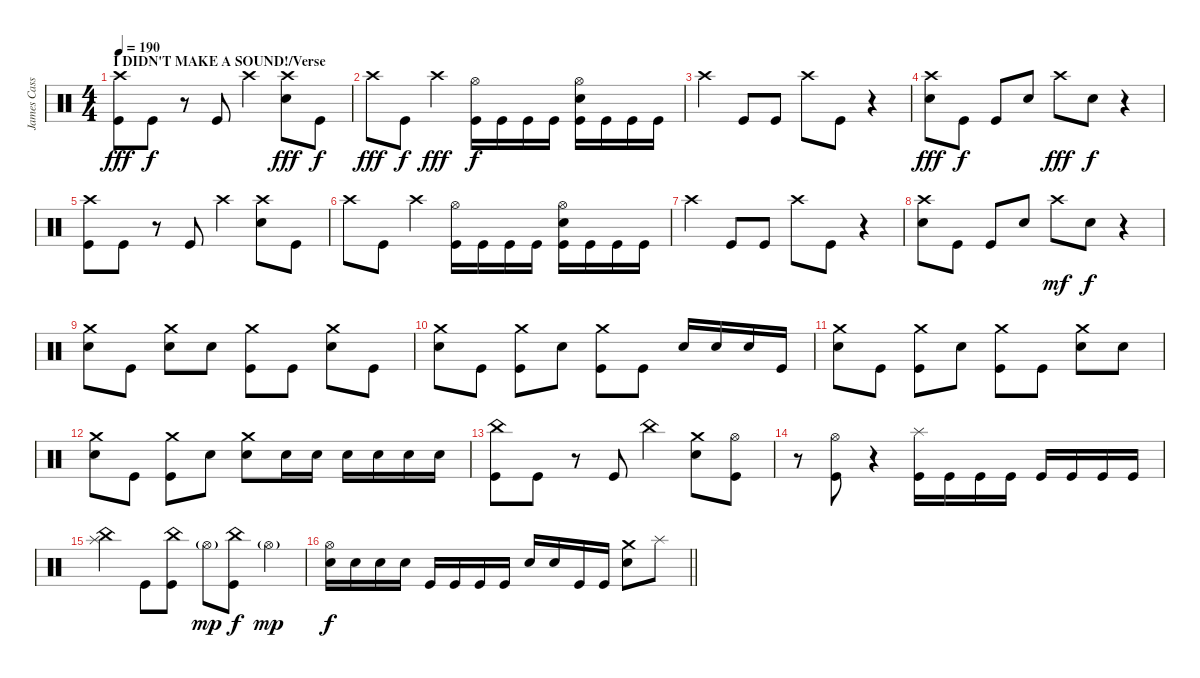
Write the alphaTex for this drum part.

\track ("James Cassells" "James Cass") {instrument percussion}
\staff {score}
\articulation defaults
\ts (4 4)
\section ("" "I DIDN'T MAKE A SOUND!/Verse")
\tempo 190
\clef neutral
\ks c
("Crash high (hit)" "Kick (hit)").8{dy fff} "Kick (hit)".8{dy f} r.8 "Kick (hit)".8 "Crash high (hit)".4 ("Crash high (hit)" "Snare (hit) 2").8{dy fff} "Kick (hit)".8{dy f} |
"Crash high (hit)".8{dy fff} "Kick (hit)".8{dy f} "Crash high (hit)".4{dy fff} ("Hi-Hat (open)" "Kick (hit)").16{dy f} "Kick (hit)".16 "Kick (hit)".16 "Kick (hit)".16 ("Hi-Hat (open)" "Snare (hit) 2" "Kick (hit)").16 "Kick (hit)".16 "Kick (hit)".16 "Kick (hit)".16 |
"Crash high (hit)".4 "Kick (hit)".8 "Kick (hit)".8 "Crash high (hit)".8 "Kick (hit)".8 r.4 |
("Crash high (hit)" "Snare (hit) 2").8{dy fff} "Kick (hit)".8{dy f} "Kick (hit)".8 "Snare (hit) 2".8 "Crash high (hit)".8{dy fff} "Snare (hit) 2".8{dy f} r.4 |
("Crash high (hit)" "Kick (hit)").8 "Kick (hit)".8 r.8 "Kick (hit)".8 "Crash high (hit)".4 ("Crash high (hit)" "Snare (hit) 2").8 "Kick (hit)".8 |
"Crash high (hit)".8 "Kick (hit)".8 "Crash high (hit)".4 ("Hi-Hat (open)" "Kick (hit)").16 "Kick (hit)".16 "Kick (hit)".16 "Kick (hit)".16 ("Hi-Hat (open)" "Snare (hit) 2" "Kick (hit)").16 "Kick (hit)".16 "Kick (hit)".16 "Kick (hit)".16 |
"Crash high (hit)".4 "Kick (hit)".8 "Kick (hit)".8 "Crash high (hit)".8 "Kick (hit)".8 r.4 |
("Crash high (hit)" "Snare (hit) 2").8 "Kick (hit)".8 "Kick (hit)".8 "Snare (hit) 2".8 "Crash high (hit)".8{dy mf} "Snare (hit) 2".8{dy f} r.4 |
("Crash medium (hit)" "Snare (hit) 2").8 "Kick (hit)".8 ("Crash medium (hit)" "Snare (hit) 2").8 "Snare (hit) 2".8 ("Crash medium (hit)" "Kick (hit)").8 "Kick (hit)".8 ("Crash medium (hit)" "Snare (hit) 2").8 "Kick (hit)".8 |
("Crash medium (hit)" "Snare (hit) 2").8 "Kick (hit)".8 ("Crash medium (hit)" "Kick (hit)").8 "Snare (hit) 2".8 ("Crash medium (hit)" "Kick (hit)").8 "Kick (hit)".8 "Snare (hit) 2".16 "Snare (hit) 2".16 "Snare (hit) 2".16 "Kick (hit)".16 |
("Crash medium (hit)" "Snare (hit) 2").8 "Kick (hit)".8 ("Crash medium (hit)" "Kick (hit)").8 "Snare (hit) 2".8 ("Crash medium (hit)" "Kick (hit)").8 "Kick (hit)".8 ("Crash medium (hit)" "Snare (hit) 2").8 "Snare (hit) 2".8 |
("Crash medium (hit)" "Snare (hit) 2").8 "Kick (hit)".8 ("Crash medium (hit)" "Kick (hit)").8 "Snare (hit) 2".8 ("Crash medium (hit)" "Snare (hit) 2").8 "Snare (hit) 2".16 "Snare (hit) 2".16 "Snare (hit) 2".16 "Snare (hit) 2".16 "Snare (hit) 2".16 "Snare (hit) 2".16 |
("China (hit)" "Kick (hit)").8 "Kick (hit)".8 r.8 "Kick (hit)".8 "China (hit)".4 ("Crash medium (hit)" "Snare (hit) 2").8 ("Hi-Hat (open)" "Kick (hit)").8 |
r.8 ("Hi-Hat (open)" "Kick (hit)").8 r.4 ("Splash (hit)" "Kick (hit)").16 "Kick (hit)".16 "Kick (hit)".16 "Kick (hit)".16 "Kick (hit)".16 "Kick (hit)".16 "Kick (hit)".16 "Kick (hit)".16 |
("China (hit)" "Splash (hit)").4 "Kick (hit)".8 ("China (hit)" "Kick (hit)").8 "Hi-Hat (open)"{g}.8{dy mp} ("China (hit)" "Kick (hit)").8{dy f} "Hi-Hat (open)"{g}.4{dy mp} |
\barLineRight lightlight
("Hi-Hat (open)" "Snare (hit) 2").16{dy f} "Snare (hit) 2".16 "Snare (hit) 2".16 "Snare (hit) 2".16 "Kick (hit)".16 "Kick (hit)".16 "Kick (hit)".16 "Kick (hit)".16 "Snare (hit) 2".16 "Snare (hit) 2".16 "Kick (hit)".16 "Kick (hit)".16 ("Crash medium (hit)" "Snare (hit) 2").8 "Splash (hit)".8
